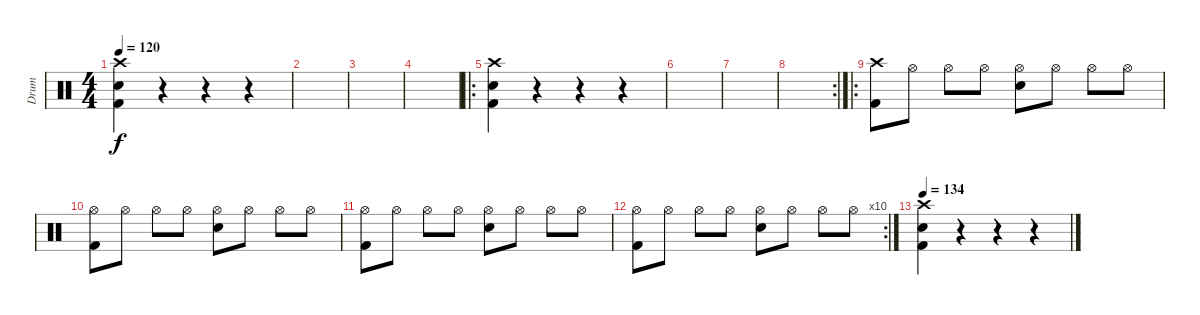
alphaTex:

\track ("Drum" "Drum") {instrument percussion}
\staff {score}
\articulation defaults
\ts (4 4)
\tempo 120
\clef neutral
\ks c
("Crash high (hit)" "Electric Snare (hit)" "Kick (hit) 2").4{dy f} r.4 r.4 r.4 |
|
|
|
\ro
("Crash high (hit)" "Electric Snare (hit)" "Kick (hit) 2").4 r.4 r.4 r.4 |
|
|
\rc 2
|
\ro
("Crash high (hit)" "Kick (hit) 2").8 "Hi-Hat (open)".8 "Hi-Hat (open)".8 "Hi-Hat (open)".8 ("Hi-Hat (open)" "Electric Snare (hit)").8 "Hi-Hat (open)".8 "Hi-Hat (open)".8 "Hi-Hat (open)".8 |
("Hi-Hat (open)" "Kick (hit) 2").8 "Hi-Hat (open)".8 "Hi-Hat (open)".8 "Hi-Hat (open)".8 ("Hi-Hat (open)" "Electric Snare (hit)").8 "Hi-Hat (open)".8 "Hi-Hat (open)".8 "Hi-Hat (open)".8 |
("Hi-Hat (open)" "Kick (hit) 2").8 "Hi-Hat (open)".8 "Hi-Hat (open)".8 "Hi-Hat (open)".8 ("Hi-Hat (open)" "Electric Snare (hit)").8 "Hi-Hat (open)".8 "Hi-Hat (open)".8 "Hi-Hat (open)".8 |
\rc 10
("Hi-Hat (open)" "Kick (hit) 2").8 "Hi-Hat (open)".8 "Hi-Hat (open)".8 "Hi-Hat (open)".8 ("Hi-Hat (open)" "Electric Snare (hit)").8 "Hi-Hat (open)".8 "Hi-Hat (open)".8 "Hi-Hat (open)".8 |
\tempo 134
("Crash high (hit)" "Electric Snare (hit)" "Kick (hit) 2").4 r.4 r.4 r.4
